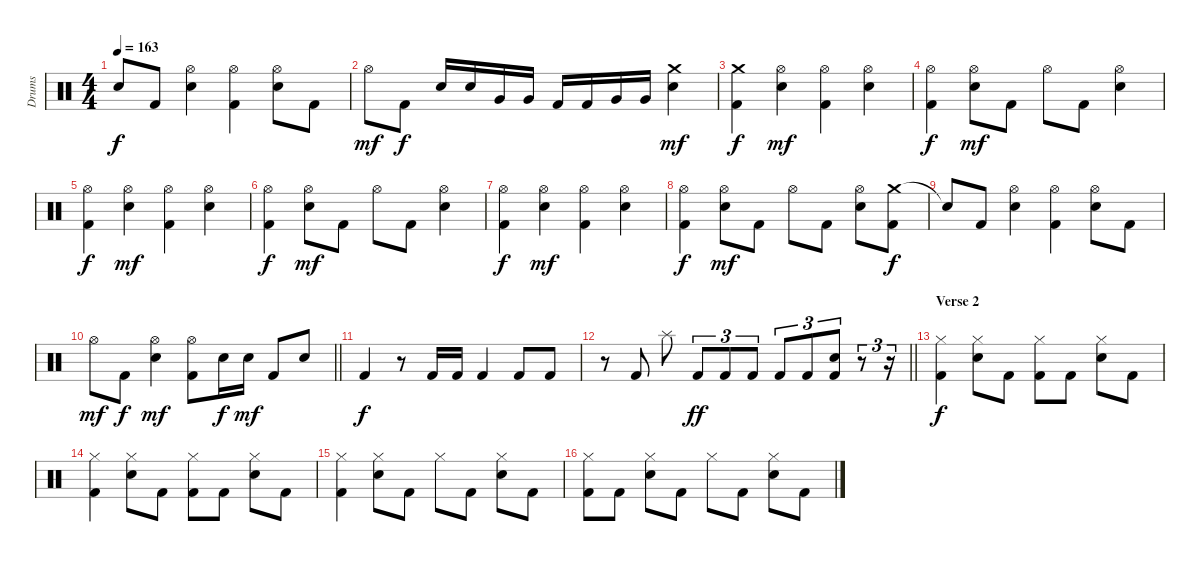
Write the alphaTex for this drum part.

\track ("Drums" "Drums") {instrument percussion}
\staff {score}
\articulation defaults
\ts (4 4)
\tempo 163
\clef neutral
\ks c "Snare (hit)"{t}.8{dy f} "Kick (hit) 2".8
("Hi-Hat (open)" "Electric Snare (hit)").4 ("Hi-Hat (open)" "Kick (hit) 2").4 ("Hi-Hat (open)" "Electric Snare (hit)").8 "Kick (hit) 2".8 |
"Hi-Hat (open)".8{dy mf} "Kick (hit) 2".8{dy f} "Electric Snare (hit)".16 "Electric Snare (hit)".16 "Very Low Tom (hit)".16 "Very Low Tom (hit)".16 "Kick (hit) 2".16 "Kick (hit) 2".16 "Very Low Tom (hit)".16 "Very Low Tom (hit)".16 ("Crash medium (hit)" "Electric Snare (hit)").4{dy mf} |
("Crash medium (hit)" "Kick (hit) 2").4{dy f} ("Hi-Hat (open)" "Electric Snare (hit)").4{dy mf} ("Hi-Hat (open)" "Kick (hit) 2").4 ("Hi-Hat (open)" "Electric Snare (hit)").4 |
("Hi-Hat (open)" "Kick (hit) 2").4{dy f} ("Hi-Hat (open)" "Electric Snare (hit)").8{dy mf} "Kick (hit) 2".8 "Hi-Hat (open)".8 "Kick (hit) 2".8 ("Hi-Hat (open)" "Electric Snare (hit)").4 |
("Hi-Hat (open)" "Kick (hit) 2").4{dy f} ("Hi-Hat (open)" "Electric Snare (hit)").4{dy mf} ("Hi-Hat (open)" "Kick (hit) 2").4 ("Hi-Hat (open)" "Electric Snare (hit)").4 |
("Hi-Hat (open)" "Kick (hit) 2").4{dy f} ("Hi-Hat (open)" "Electric Snare (hit)").8{dy mf} "Kick (hit) 2".8 "Hi-Hat (open)".8 "Kick (hit) 2".8 ("Hi-Hat (open)" "Electric Snare (hit)").4 |
("Hi-Hat (open)" "Kick (hit) 2").4{dy f} ("Hi-Hat (open)" "Electric Snare (hit)").4{dy mf} ("Hi-Hat (open)" "Kick (hit) 2").4 ("Hi-Hat (open)" "Electric Snare (hit)").4 |
("Hi-Hat (open)" "Kick (hit) 2").4{dy f} ("Hi-Hat (open)" "Electric Snare (hit)").8{dy mf} "Kick (hit) 2".8 "Hi-Hat (open)".8 "Kick (hit) 2".8 ("Hi-Hat (open)" "Electric Snare (hit)").8 ("Crash medium (hit)" "Kick (hit) 2").8{dy f} |
"Snare (hit)"{t}.8 "Kick (hit) 2".8 ("Hi-Hat (open)" "Electric Snare (hit)").4 ("Hi-Hat (open)" "Kick (hit) 2").4 ("Hi-Hat (open)" "Electric Snare (hit)").8 "Kick (hit) 2".8 |
\barLineRight lightlight "Hi-Hat (open)".8{dy mf} "Kick (hit) 2".8{dy f}
("Hi-Hat (open)" "Electric Snare (hit)").4{dy mf} ("Hi-Hat (open)" "Kick (hit) 2").8 "Electric Snare (hit)".16{dy f} "Electric Snare (hit)".16{dy mf} "Kick (hit) 2".8 "Electric Snare (hit)".8 |
"Kick (hit) 2".4{dy f} r.8 "Kick (hit) 2".16 "Kick (hit) 2".16 "Kick (hit) 2".4 "Kick (hit) 2".8 "Kick (hit) 2".8 |
\barLineRight lightlight
r.8 "Kick (hit) 2".8 "Splash (hit)".8 "Kick (hit) 2".8{tu (3 2) dy ff} "Kick (hit) 2".8{tu (3 2)} "Kick (hit) 2".8{tu (3 2)} "Kick (hit) 2".8{tu (3 2)} "Kick (hit) 2".8{tu (3 2)} ("Electric Snare (hit)" "Kick (hit) 2").8{tu (3 2)} r.8{tu (3 2)} r.16{tu (3 2)} |
\section ("" "Verse 2")
("Hi-Hat (closed)" "Kick (hit) 2").4{dy f} ("Hi-Hat (closed)" "Electric Snare (hit)").8 "Kick (hit) 2".8 ("Hi-Hat (closed)" "Kick (hit) 2").8 "Kick (hit) 2".8 ("Hi-Hat (closed)" "Electric Snare (hit)").8 "Kick (hit) 2".8 |
("Hi-Hat (closed)" "Kick (hit) 2").4 ("Hi-Hat (closed)" "Electric Snare (hit)").8 "Kick (hit) 2".8 ("Hi-Hat (closed)" "Kick (hit) 2").8 "Kick (hit) 2".8 ("Hi-Hat (closed)" "Electric Snare (hit)").8 "Kick (hit) 2".8 |
("Hi-Hat (closed)" "Kick (hit) 2").4 ("Hi-Hat (closed)" "Electric Snare (hit)").8 "Kick (hit) 2".8 "Hi-Hat (closed)".8 "Kick (hit) 2".8 ("Hi-Hat (closed)" "Electric Snare (hit)").8 "Kick (hit) 2".8 |
("Hi-Hat (closed)" "Kick (hit) 2").8 "Kick (hit) 2".8 ("Hi-Hat (closed)" "Electric Snare (hit)").8 "Kick (hit) 2".8 "Hi-Hat (closed)".8 "Kick (hit) 2".8 ("Hi-Hat (closed)" "Electric Snare (hit)").8 "Kick (hit) 2".8
